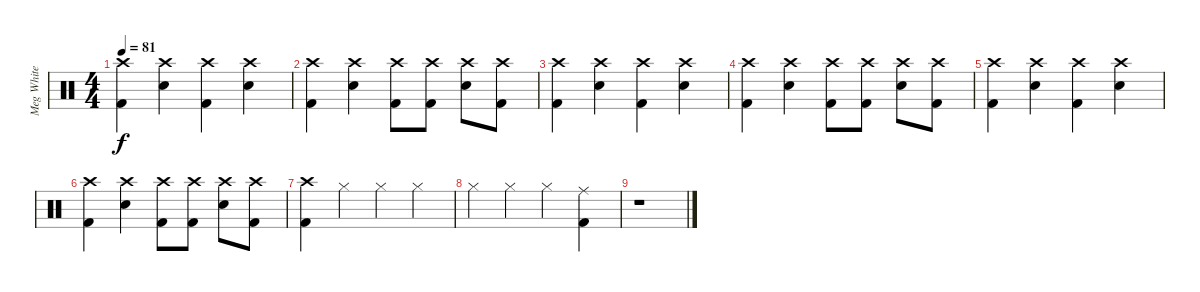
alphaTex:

\track ("Meg White" "Meg White") {instrument percussion}
\staff {score}
\articulation defaults
\ts (4 4)
\tempo 81
\clef neutral
\ks c
("Crash high (hit)" "Kick (hit) 2").4{dy f} ("Crash high (hit)" "Electric Snare (hit)").4 ("Crash high (hit)" "Kick (hit) 2").4 ("Crash high (hit)" "Electric Snare (hit)").4 |
("Crash high (hit)" "Kick (hit) 2").4 ("Crash high (hit)" "Electric Snare (hit)").4 ("Crash high (hit)" "Kick (hit) 2").8 ("Crash high (hit)" "Kick (hit) 2").8 ("Crash high (hit)" "Electric Snare (hit)").8 ("Crash high (hit)" "Kick (hit) 2").8 |
("Crash high (hit)" "Kick (hit) 2").4 ("Crash high (hit)" "Electric Snare (hit)").4 ("Crash high (hit)" "Kick (hit) 2").4 ("Crash high (hit)" "Electric Snare (hit)").4 |
("Crash high (hit)" "Kick (hit) 2").4 ("Crash high (hit)" "Electric Snare (hit)").4 ("Crash high (hit)" "Kick (hit) 2").8 ("Crash high (hit)" "Kick (hit) 2").8 ("Crash high (hit)" "Electric Snare (hit)").8 ("Crash high (hit)" "Kick (hit) 2").8 |
("Crash high (hit)" "Kick (hit) 2").4 ("Crash high (hit)" "Electric Snare (hit)").4 ("Crash high (hit)" "Kick (hit) 2").4 ("Crash high (hit)" "Electric Snare (hit)").4 |
("Crash high (hit)" "Kick (hit) 2").4 ("Crash high (hit)" "Electric Snare (hit)").4 ("Crash high (hit)" "Kick (hit) 2").8 ("Crash high (hit)" "Kick (hit) 2").8 ("Crash high (hit)" "Electric Snare (hit)").8 ("Crash high (hit)" "Kick (hit) 2").8 |
("Crash high (hit)" "Kick (hit) 2").4 "Hi-Hat (closed)".4 "Hi-Hat (closed)".4 "Hi-Hat (closed)".4 |
"Hi-Hat (closed)".4 "Hi-Hat (closed)".4 "Hi-Hat (closed)".4 ("Ride (middle)" "Kick (hit) 2").4 |
r.1
